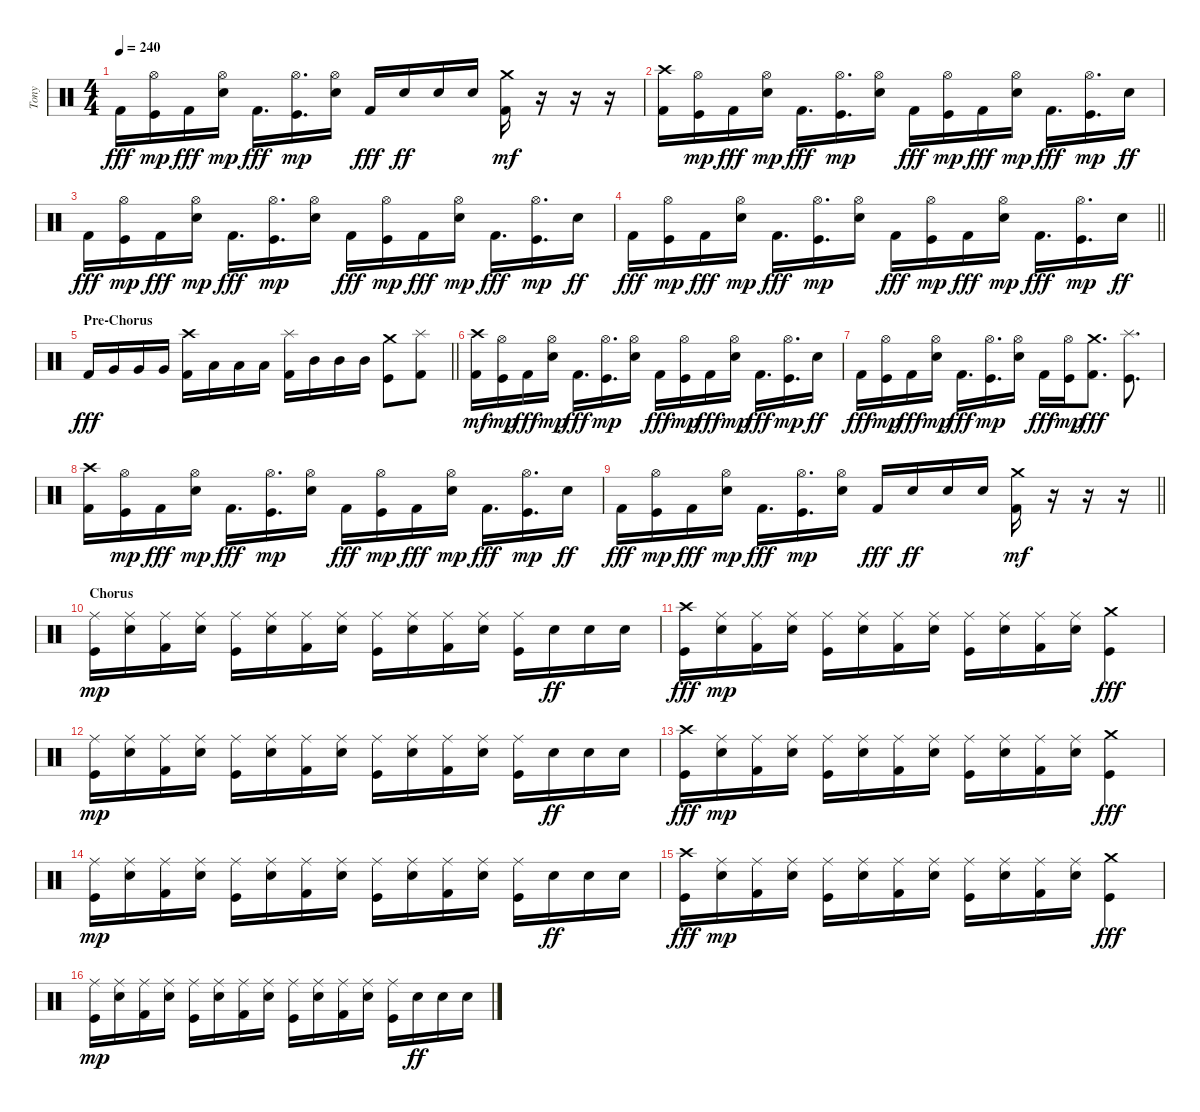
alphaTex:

\track ("Tony" "Tony") {instrument percussion}
\staff {score}
\articulation defaults
\ts (4 4)
\tempo 240
\clef neutral
\ks c "Kick (hit) 2".16{dy fff}
("Kick (hit)" "Hi-Hat (open)").16{dy mp} "Kick (hit) 2".16{dy fff} ("Snare (hit) 2" "Hi-Hat (open)").16{dy mp} "Kick (hit) 2".16{d dy fff} ("Kick (hit)" "Hi-Hat (open)").16{d dy mp} ("Snare (hit) 2" "Hi-Hat (open)").16 "Kick (hit) 2".16{dy fff} "Snare (hit) 2".16{dy ff} "Snare (hit) 2".16 "Snare (hit) 2".16 ("Kick (hit) 2" "Crash medium (hit)").16{dy mf} r.16 r.16 r.16 |
("Kick (hit) 2" "Crash high (hit)").16 ("Kick (hit)" "Hi-Hat (open)").16{dy mp} "Kick (hit) 2".16{dy fff} ("Snare (hit) 2" "Hi-Hat (open)").16{dy mp} "Kick (hit) 2".16{d dy fff} ("Kick (hit)" "Hi-Hat (open)").16{d dy mp} ("Snare (hit) 2" "Hi-Hat (open)").16 "Kick (hit) 2".16{dy fff} ("Kick (hit)" "Hi-Hat (open)").16{dy mp} "Kick (hit) 2".16{dy fff} ("Snare (hit) 2" "Hi-Hat (open)").16{dy mp} "Kick (hit) 2".16{d dy fff} ("Kick (hit)" "Hi-Hat (open)").16{d dy mp} "Snare (hit) 2".16{dy ff} |
"Kick (hit) 2".16{dy fff} ("Kick (hit)" "Hi-Hat (open)").16{dy mp} "Kick (hit) 2".16{dy fff} ("Snare (hit) 2" "Hi-Hat (open)").16{dy mp} "Kick (hit) 2".16{d dy fff} ("Kick (hit)" "Hi-Hat (open)").16{d dy mp} ("Snare (hit) 2" "Hi-Hat (open)").16 "Kick (hit) 2".16{dy fff} ("Kick (hit)" "Hi-Hat (open)").16{dy mp} "Kick (hit) 2".16{dy fff} ("Snare (hit) 2" "Hi-Hat (open)").16{dy mp} "Kick (hit) 2".16{d dy fff} ("Kick (hit)" "Hi-Hat (open)").16{d dy mp} "Snare (hit) 2".16{dy ff} |
\barLineRight lightlight "Kick (hit) 2".16{dy fff}
("Kick (hit)" "Hi-Hat (open)").16{dy mp} "Kick (hit) 2".16{dy fff} ("Snare (hit) 2" "Hi-Hat (open)").16{dy mp} "Kick (hit) 2".16{d dy fff} ("Kick (hit)" "Hi-Hat (open)").16{d dy mp} ("Snare (hit) 2" "Hi-Hat (open)").16 "Kick (hit) 2".16{dy fff} ("Kick (hit)" "Hi-Hat (open)").16{dy mp} "Kick (hit) 2".16{dy fff} ("Snare (hit) 2" "Hi-Hat (open)").16{dy mp} "Kick (hit) 2".16{d dy fff} ("Kick (hit)" "Hi-Hat (open)").16{d dy mp} "Snare (hit) 2".16{dy ff} |
\section ("" "Pre-Chorus")
\barLineRight lightlight "Kick (hit) 2".16{dy fff} "Very Low Tom (hit)".16 "Very Low Tom (hit)".16 "Very Low Tom (hit)".16
("Kick (hit) 2" "Crash high (hit)").16 "Low Tom (hit)".16 "Low Tom (hit)".16 "Low Tom (hit)".16 ("Kick (hit) 2" "Splash (hit)").16 "Mid Tom (hit)".16 "Mid Tom (hit)".16 "Mid Tom (hit)".16 ("Kick (hit)" "Crash medium (hit)").8 ("Kick (hit) 2" "Splash (hit)").8 |
("Kick (hit) 2" "Crash high (hit)").16{dy mf} ("Kick (hit)" "Hi-Hat (open)").16{dy mp} "Kick (hit) 2".16{dy fff} ("Snare (hit) 2" "Hi-Hat (open)").16{dy mp} "Kick (hit) 2".16{d dy fff} ("Kick (hit)" "Hi-Hat (open)").16{d dy mp} ("Snare (hit) 2" "Hi-Hat (open)").16 "Kick (hit) 2".16{dy fff} ("Kick (hit)" "Hi-Hat (open)").16{dy mp} "Kick (hit) 2".16{dy fff} ("Snare (hit) 2" "Hi-Hat (open)").16{dy mp} "Kick (hit) 2".16{d dy fff} ("Kick (hit)" "Hi-Hat (open)").16{d dy mp} "Snare (hit) 2".16{dy ff} |
"Kick (hit) 2".16{dy fff} ("Kick (hit)" "Hi-Hat (open)").16{dy mp} "Kick (hit) 2".16{dy fff} ("Snare (hit) 2" "Hi-Hat (open)").16{dy mp} "Kick (hit) 2".16{d dy fff} ("Kick (hit)" "Hi-Hat (open)").16{d dy mp} ("Snare (hit) 2" "Hi-Hat (open)").16 "Kick (hit) 2".16{dy fff} ("Kick (hit)" "Hi-Hat (open)").16{dy mp} ("Kick (hit) 2" "Crash medium (hit)").8{d dy fff} ("Kick (hit)" "Splash (hit)").8{d} |
("Kick (hit) 2" "Crash high (hit)").16 ("Kick (hit)" "Hi-Hat (open)").16{dy mp} "Kick (hit) 2".16{dy fff} ("Snare (hit) 2" "Hi-Hat (open)").16{dy mp} "Kick (hit) 2".16{d dy fff} ("Kick (hit)" "Hi-Hat (open)").16{d dy mp} ("Snare (hit) 2" "Hi-Hat (open)").16 "Kick (hit) 2".16{dy fff} ("Kick (hit)" "Hi-Hat (open)").16{dy mp} "Kick (hit) 2".16{dy fff} ("Snare (hit) 2" "Hi-Hat (open)").16{dy mp} "Kick (hit) 2".16{d dy fff} ("Kick (hit)" "Hi-Hat (open)").16{d dy mp} "Snare (hit) 2".16{dy ff} |
\barLineRight lightlight "Kick (hit) 2".16{dy fff}
("Kick (hit)" "Hi-Hat (open)").16{dy mp} "Kick (hit) 2".16{dy fff} ("Snare (hit) 2" "Hi-Hat (open)").16{dy mp} "Kick (hit) 2".16{d dy fff} ("Kick (hit)" "Hi-Hat (open)").16{d dy mp} ("Snare (hit) 2" "Hi-Hat (open)").16 "Kick (hit) 2".16{dy fff} "Snare (hit) 2".16{dy ff} "Snare (hit) 2".16 "Snare (hit) 2".16 ("Kick (hit) 2" "Crash medium (hit)").16{dy mf} r.16 r.16 r.16 |
\section ("" "Chorus")
("Kick (hit)" "Ride (middle)").16{dy mp} ("Snare (hit) 2" "Ride (middle)").16 ("Kick (hit) 2" "Ride (middle)").16 ("Snare (hit) 2" "Ride (middle)").16 ("Kick (hit)" "Ride (middle)").16 ("Snare (hit) 2" "Ride (middle)").16 ("Kick (hit) 2" "Ride (middle)").16 ("Snare (hit) 2" "Ride (middle)").16 ("Kick (hit)" "Ride (middle)").16 ("Snare (hit) 2" "Ride (middle)").16 ("Kick (hit) 2" "Ride (middle)").16 ("Snare (hit) 2" "Ride (middle)").16 ("Kick (hit)" "Ride (middle)").16 "Snare (hit) 2".16{dy ff} "Snare (hit) 2".16 "Snare (hit) 2".16 |
("Kick (hit)" "Crash high (hit)").16{dy fff} ("Snare (hit) 2" "Ride (middle)").16{dy mp} ("Kick (hit) 2" "Ride (middle)").16 ("Snare (hit) 2" "Ride (middle)").16 ("Kick (hit)" "Ride (middle)").16 ("Snare (hit) 2" "Ride (middle)").16 ("Kick (hit) 2" "Ride (middle)").16 ("Snare (hit) 2" "Ride (middle)").16 ("Kick (hit)" "Ride (middle)").16 ("Snare (hit) 2" "Ride (middle)").16 ("Kick (hit) 2" "Ride (middle)").16 ("Snare (hit) 2" "Ride (middle)").16 ("Kick (hit)" "Crash medium (hit)").4{dy fff} |
("Kick (hit)" "Ride (middle)").16{dy mp} ("Snare (hit) 2" "Ride (middle)").16 ("Kick (hit) 2" "Ride (middle)").16 ("Snare (hit) 2" "Ride (middle)").16 ("Kick (hit)" "Ride (middle)").16 ("Snare (hit) 2" "Ride (middle)").16 ("Kick (hit) 2" "Ride (middle)").16 ("Snare (hit) 2" "Ride (middle)").16 ("Kick (hit)" "Ride (middle)").16 ("Snare (hit) 2" "Ride (middle)").16 ("Kick (hit) 2" "Ride (middle)").16 ("Snare (hit) 2" "Ride (middle)").16 ("Kick (hit)" "Ride (middle)").16 "Snare (hit) 2".16{dy ff} "Snare (hit) 2".16 "Snare (hit) 2".16 |
("Kick (hit)" "Crash high (hit)").16{dy fff} ("Snare (hit) 2" "Ride (middle)").16{dy mp} ("Kick (hit) 2" "Ride (middle)").16 ("Snare (hit) 2" "Ride (middle)").16 ("Kick (hit)" "Ride (middle)").16 ("Snare (hit) 2" "Ride (middle)").16 ("Kick (hit) 2" "Ride (middle)").16 ("Snare (hit) 2" "Ride (middle)").16 ("Kick (hit)" "Ride (middle)").16 ("Snare (hit) 2" "Ride (middle)").16 ("Kick (hit) 2" "Ride (middle)").16 ("Snare (hit) 2" "Ride (middle)").16 ("Kick (hit)" "Crash medium (hit)").4{dy fff} |
("Kick (hit)" "Ride (middle)").16{dy mp} ("Snare (hit) 2" "Ride (middle)").16 ("Kick (hit) 2" "Ride (middle)").16 ("Snare (hit) 2" "Ride (middle)").16 ("Kick (hit)" "Ride (middle)").16 ("Snare (hit) 2" "Ride (middle)").16 ("Kick (hit) 2" "Ride (middle)").16 ("Snare (hit) 2" "Ride (middle)").16 ("Kick (hit)" "Ride (middle)").16 ("Snare (hit) 2" "Ride (middle)").16 ("Kick (hit) 2" "Ride (middle)").16 ("Snare (hit) 2" "Ride (middle)").16 ("Kick (hit)" "Ride (middle)").16 "Snare (hit) 2".16{dy ff} "Snare (hit) 2".16 "Snare (hit) 2".16 |
("Kick (hit)" "Crash high (hit)").16{dy fff} ("Snare (hit) 2" "Ride (middle)").16{dy mp} ("Kick (hit) 2" "Ride (middle)").16 ("Snare (hit) 2" "Ride (middle)").16 ("Kick (hit)" "Ride (middle)").16 ("Snare (hit) 2" "Ride (middle)").16 ("Kick (hit) 2" "Ride (middle)").16 ("Snare (hit) 2" "Ride (middle)").16 ("Kick (hit)" "Ride (middle)").16 ("Snare (hit) 2" "Ride (middle)").16 ("Kick (hit) 2" "Ride (middle)").16 ("Snare (hit) 2" "Ride (middle)").16 ("Kick (hit)" "Crash medium (hit)").4{dy fff} |
("Kick (hit)" "Ride (middle)").16{dy mp} ("Snare (hit) 2" "Ride (middle)").16 ("Kick (hit) 2" "Ride (middle)").16 ("Snare (hit) 2" "Ride (middle)").16 ("Kick (hit)" "Ride (middle)").16 ("Snare (hit) 2" "Ride (middle)").16 ("Kick (hit) 2" "Ride (middle)").16 ("Snare (hit) 2" "Ride (middle)").16 ("Kick (hit)" "Ride (middle)").16 ("Snare (hit) 2" "Ride (middle)").16 ("Kick (hit) 2" "Ride (middle)").16 ("Snare (hit) 2" "Ride (middle)").16 ("Kick (hit)" "Ride (middle)").16 "Snare (hit) 2".16{dy ff} "Snare (hit) 2".16 "Snare (hit) 2".16
